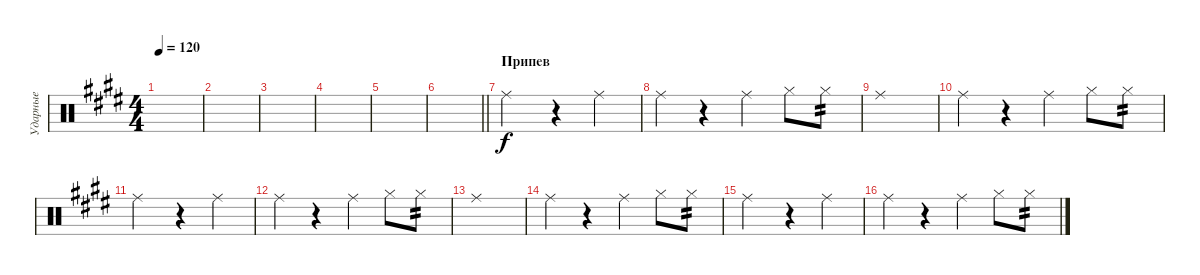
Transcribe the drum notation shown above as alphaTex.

\track ("Ударные" "Ударные") {instrument percussion}
\staff {score}
\articulation defaults
\ts (4 4)
\tempo 120
\clef neutral
\ks e
|
|
|
|
|
\barLineRight lightlight
|
\section ("" "Припев")
"Ride (middle)".2 r.4 "Ride (middle)".4 |
"Ride (middle)".4 r.4 "Ride (middle)".4 "Hi-Hat (closed)".8 "Hi-Hat (closed)".8{tp 2} |
"Ride (middle)".1 |
"Ride (middle)".4 r.4 "Ride (middle)".4 "Hi-Hat (closed)".8 "Hi-Hat (closed)".8{tp 2} |
"Ride (middle)".2 r.4 "Ride (middle)".4 |
"Ride (middle)".4 r.4 "Ride (middle)".4 "Hi-Hat (closed)".8 "Hi-Hat (closed)".8{tp 2} |
"Ride (middle)".1 |
"Ride (middle)".4 r.4 "Ride (middle)".4 "Hi-Hat (closed)".8 "Hi-Hat (closed)".8{tp 2} |
"Ride (middle)".2 r.4 "Ride (middle)".4 |
"Ride (middle)".4 r.4 "Ride (middle)".4 "Hi-Hat (closed)".8 "Hi-Hat (closed)".8{tp 2}
